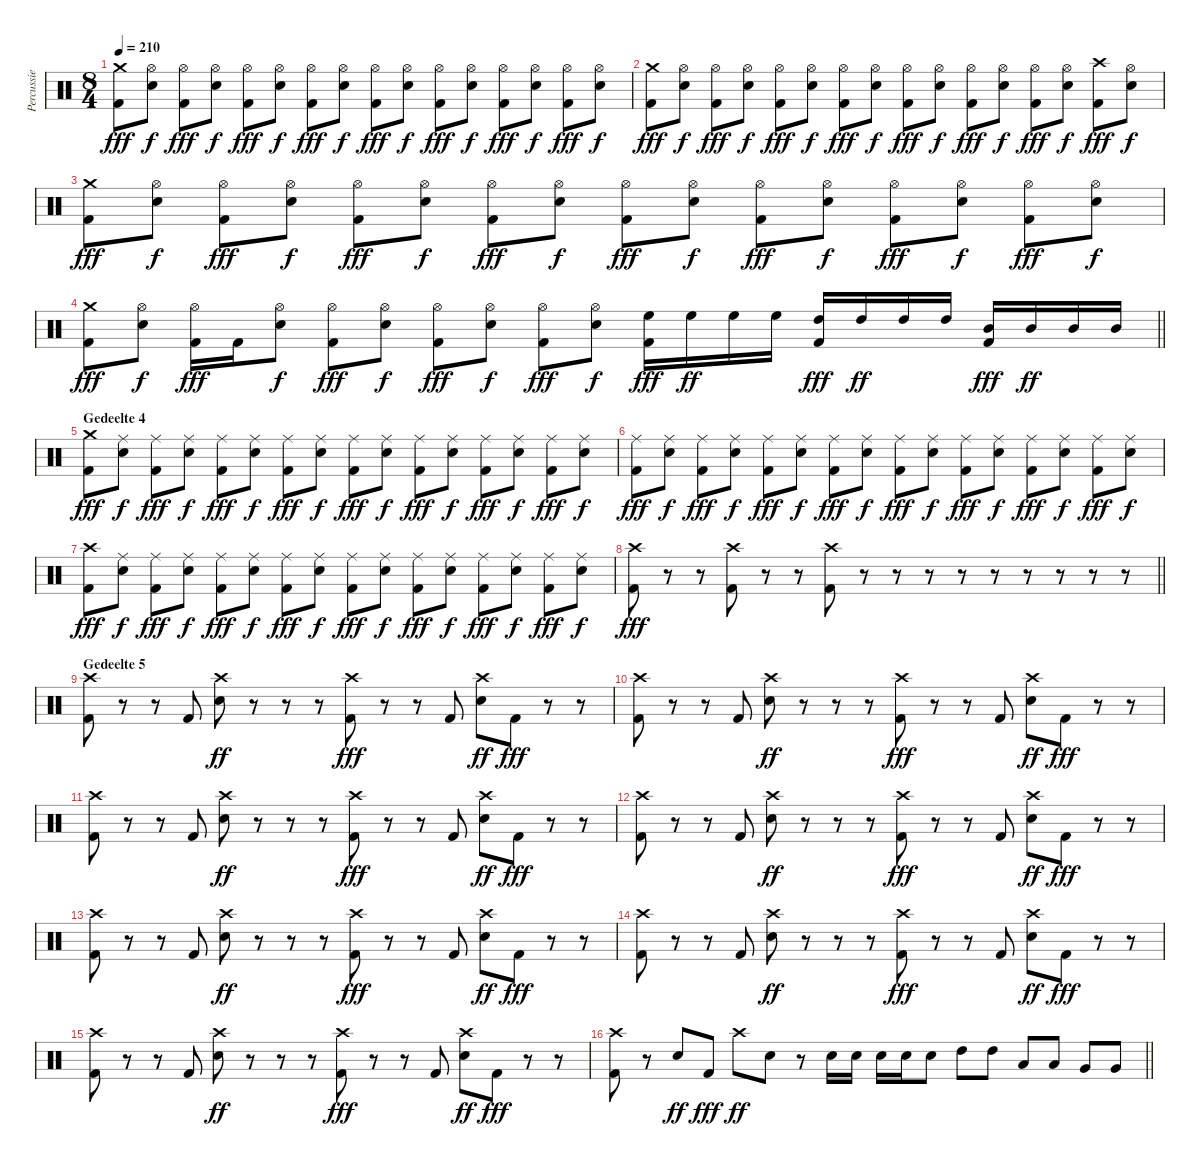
\track ("Percussie" "Percussie") {instrument percussion}
\staff {score}
\articulation defaults
\ts (8 4)
\tempo 210
\clef neutral
\ks c
("Crash medium (hit)" "Kick (hit) 2").8{dy fff} ("Hi-Hat (open)" "Snare (hit) 2").8{dy f} ("Hi-Hat (open)" "Kick (hit) 2").8{dy fff} ("Hi-Hat (open)" "Snare (hit) 2").8{dy f} ("Hi-Hat (open)" "Kick (hit) 2").8{dy fff} ("Hi-Hat (open)" "Snare (hit) 2").8{dy f} ("Hi-Hat (open)" "Kick (hit) 2").8{dy fff} ("Hi-Hat (open)" "Snare (hit) 2").8{dy f} ("Hi-Hat (open)" "Kick (hit) 2").8{dy fff} ("Hi-Hat (open)" "Snare (hit) 2").8{dy f} ("Hi-Hat (open)" "Kick (hit) 2").8{dy fff} ("Hi-Hat (open)" "Snare (hit) 2").8{dy f} ("Hi-Hat (open)" "Kick (hit) 2").8{dy fff} ("Hi-Hat (open)" "Snare (hit) 2").8{dy f} ("Hi-Hat (open)" "Kick (hit) 2").8{dy fff} ("Hi-Hat (open)" "Snare (hit) 2").8{dy f} |
("Crash medium (hit)" "Kick (hit) 2").8{dy fff} ("Hi-Hat (open)" "Snare (hit) 2").8{dy f} ("Hi-Hat (open)" "Kick (hit) 2").8{dy fff} ("Hi-Hat (open)" "Snare (hit) 2").8{dy f} ("Hi-Hat (open)" "Kick (hit) 2").8{dy fff} ("Hi-Hat (open)" "Snare (hit) 2").8{dy f} ("Hi-Hat (open)" "Kick (hit) 2").8{dy fff} ("Hi-Hat (open)" "Snare (hit) 2").8{dy f} ("Hi-Hat (open)" "Kick (hit) 2").8{dy fff} ("Hi-Hat (open)" "Snare (hit) 2").8{dy f} ("Hi-Hat (open)" "Kick (hit) 2").8{dy fff} ("Hi-Hat (open)" "Snare (hit) 2").8{dy f} ("Hi-Hat (open)" "Kick (hit) 2").8{dy fff} ("Hi-Hat (open)" "Snare (hit) 2").8{dy f} ("Crash high (hit)" "Kick (hit) 2").8{dy fff} ("Hi-Hat (open)" "Snare (hit) 2").8{dy f} |
("Crash medium (hit)" "Kick (hit) 2").8{dy fff} ("Hi-Hat (open)" "Snare (hit) 2").8{dy f} ("Hi-Hat (open)" "Kick (hit) 2").8{dy fff} ("Hi-Hat (open)" "Snare (hit) 2").8{dy f} ("Hi-Hat (open)" "Kick (hit) 2").8{dy fff} ("Hi-Hat (open)" "Snare (hit) 2").8{dy f} ("Hi-Hat (open)" "Kick (hit) 2").8{dy fff} ("Hi-Hat (open)" "Snare (hit) 2").8{dy f} ("Hi-Hat (open)" "Kick (hit) 2").8{dy fff} ("Hi-Hat (open)" "Snare (hit) 2").8{dy f} ("Hi-Hat (open)" "Kick (hit) 2").8{dy fff} ("Hi-Hat (open)" "Snare (hit) 2").8{dy f} ("Hi-Hat (open)" "Kick (hit) 2").8{dy fff} ("Hi-Hat (open)" "Snare (hit) 2").8{dy f} ("Hi-Hat (open)" "Kick (hit) 2").8{dy fff} ("Hi-Hat (open)" "Snare (hit) 2").8{dy f} |
\barLineRight lightlight
("Crash medium (hit)" "Kick (hit) 2").8{dy fff} ("Hi-Hat (open)" "Snare (hit) 2").8{dy f} ("Hi-Hat (open)" "Kick (hit) 2").16{dy fff} "Kick (hit) 2".16 ("Hi-Hat (open)" "Snare (hit) 2").8{dy f} ("Hi-Hat (open)" "Kick (hit) 2").8{dy fff} ("Hi-Hat (open)" "Snare (hit) 2").8{dy f} ("Hi-Hat (open)" "Kick (hit) 2").8{dy fff} ("Hi-Hat (open)" "Snare (hit) 2").8{dy f} ("Hi-Hat (open)" "Kick (hit) 2").8{dy fff} ("Hi-Hat (open)" "Snare (hit) 2").8{dy f} ("High Floor Tom (hit)" "Kick (hit) 2").16{dy fff} "High Floor Tom (hit)".16{dy ff} "High Floor Tom (hit)".16 "High Floor Tom (hit)".16 ("High Tom (hit)" "Kick (hit) 2").16{dy fff} "High Tom (hit)".16{dy ff} "High Tom (hit)".16 "High Tom (hit)".16 ("Mid Tom (hit)" "Kick (hit) 2").16{dy fff} "Mid Tom (hit)".16{dy ff} "Mid Tom (hit)".16 "Mid Tom (hit)".16 |
\section ("" "Gedeelte 4")
("Crash medium (hit)" "Kick (hit) 2").8{dy fff} ("Ride (middle)" "Snare (hit) 2").8{dy f} ("Ride (middle)" "Kick (hit) 2").8{dy fff} ("Ride (middle)" "Snare (hit) 2").8{dy f} ("Ride (middle)" "Kick (hit) 2").8{dy fff} ("Ride (middle)" "Snare (hit) 2").8{dy f} ("Ride (middle)" "Kick (hit) 2").8{dy fff} ("Ride (middle)" "Snare (hit) 2").8{dy f} ("Ride (middle)" "Kick (hit) 2").8{dy fff} ("Ride (middle)" "Snare (hit) 2").8{dy f} ("Ride (middle)" "Kick (hit) 2").8{dy fff} ("Ride (middle)" "Snare (hit) 2").8{dy f} ("Ride (middle)" "Kick (hit) 2").8{dy fff} ("Ride (middle)" "Snare (hit) 2").8{dy f} ("Ride (middle)" "Kick (hit) 2").8{dy fff} ("Ride (middle)" "Snare (hit) 2").8{dy f} |
("Ride (middle)" "Kick (hit) 2").8{dy fff} ("Ride (middle)" "Snare (hit) 2").8{dy f} ("Ride (middle)" "Kick (hit) 2").8{dy fff} ("Ride (middle)" "Snare (hit) 2").8{dy f} ("Ride (middle)" "Kick (hit) 2").8{dy fff} ("Ride (middle)" "Snare (hit) 2").8{dy f} ("Ride (middle)" "Kick (hit) 2").8{dy fff} ("Ride (middle)" "Snare (hit) 2").8{dy f} ("Ride (middle)" "Kick (hit) 2").8{dy fff} ("Ride (middle)" "Snare (hit) 2").8{dy f} ("Ride (middle)" "Kick (hit) 2").8{dy fff} ("Ride (middle)" "Snare (hit) 2").8{dy f} ("Ride (middle)" "Kick (hit) 2").8{dy fff} ("Ride (middle)" "Snare (hit) 2").8{dy f} ("Ride (middle)" "Kick (hit) 2").8{dy fff} ("Ride (middle)" "Snare (hit) 2").8{dy f} |
("Crash high (hit)" "Kick (hit) 2").8{dy fff} ("Ride (middle)" "Snare (hit) 2").8{dy f} ("Ride (middle)" "Kick (hit) 2").8{dy fff} ("Ride (middle)" "Snare (hit) 2").8{dy f} ("Ride (middle)" "Kick (hit) 2").8{dy fff} ("Ride (middle)" "Snare (hit) 2").8{dy f} ("Ride (middle)" "Kick (hit) 2").8{dy fff} ("Ride (middle)" "Snare (hit) 2").8{dy f} ("Ride (middle)" "Kick (hit) 2").8{dy fff} ("Ride (middle)" "Snare (hit) 2").8{dy f} ("Ride (middle)" "Kick (hit) 2").8{dy fff} ("Ride (middle)" "Snare (hit) 2").8{dy f} ("Ride (middle)" "Kick (hit) 2").8{dy fff} ("Ride (middle)" "Snare (hit) 2").8{dy f} ("Ride (middle)" "Kick (hit) 2").8{dy fff} ("Ride (middle)" "Snare (hit) 2").8{dy f} |
\barLineRight lightlight
("Crash high (hit)" "Kick (hit) 2").8{dy fff} r.8 r.8 ("Crash high (hit)" "Kick (hit) 2").8 r.8 r.8 ("Crash high (hit)" "Kick (hit) 2").8 r.8 r.8 r.8 r.8 r.8 r.8 r.8 r.8 r.8 |
\section ("" "Gedeelte 5")
("Crash high (hit)" "Kick (hit) 2").8 r.8 r.8 "Kick (hit) 2".8 ("Crash high (hit)" "Snare (hit) 2").8{dy ff} r.8 r.8 r.8 ("Crash high (hit)" "Kick (hit) 2").8{dy fff} r.8 r.8 "Kick (hit) 2".8 ("Crash high (hit)" "Snare (hit) 2").8{dy ff} "Kick (hit) 2".8{dy fff} r.8 r.8 |
("Crash high (hit)" "Kick (hit) 2").8 r.8 r.8 "Kick (hit) 2".8 ("Crash high (hit)" "Snare (hit) 2").8{dy ff} r.8 r.8 r.8 ("Crash high (hit)" "Kick (hit) 2").8{dy fff} r.8 r.8 "Kick (hit) 2".8 ("Crash high (hit)" "Snare (hit) 2").8{dy ff} "Kick (hit) 2".8{dy fff} r.8 r.8 |
("Crash high (hit)" "Kick (hit) 2").8 r.8 r.8 "Kick (hit) 2".8 ("Crash high (hit)" "Snare (hit) 2").8{dy ff} r.8 r.8 r.8 ("Crash high (hit)" "Kick (hit) 2").8{dy fff} r.8 r.8 "Kick (hit) 2".8 ("Crash high (hit)" "Snare (hit) 2").8{dy ff} "Kick (hit) 2".8{dy fff} r.8 r.8 |
("Crash high (hit)" "Kick (hit) 2").8 r.8 r.8 "Kick (hit) 2".8 ("Crash high (hit)" "Snare (hit) 2").8{dy ff} r.8 r.8 r.8 ("Crash high (hit)" "Kick (hit) 2").8{dy fff} r.8 r.8 "Kick (hit) 2".8 ("Crash high (hit)" "Snare (hit) 2").8{dy ff} "Kick (hit) 2".8{dy fff} r.8 r.8 |
("Crash high (hit)" "Kick (hit) 2").8 r.8 r.8 "Kick (hit) 2".8 ("Crash high (hit)" "Snare (hit) 2").8{dy ff} r.8 r.8 r.8 ("Crash high (hit)" "Kick (hit) 2").8{dy fff} r.8 r.8 "Kick (hit) 2".8 ("Crash high (hit)" "Snare (hit) 2").8{dy ff} "Kick (hit) 2".8{dy fff} r.8 r.8 |
("Crash high (hit)" "Kick (hit) 2").8 r.8 r.8 "Kick (hit) 2".8 ("Crash high (hit)" "Snare (hit) 2").8{dy ff} r.8 r.8 r.8 ("Crash high (hit)" "Kick (hit) 2").8{dy fff} r.8 r.8 "Kick (hit) 2".8 ("Crash high (hit)" "Snare (hit) 2").8{dy ff} "Kick (hit) 2".8{dy fff} r.8 r.8 |
("Crash high (hit)" "Kick (hit) 2").8 r.8 r.8 "Kick (hit) 2".8 ("Crash high (hit)" "Snare (hit) 2").8{dy ff} r.8 r.8 r.8 ("Crash high (hit)" "Kick (hit) 2").8{dy fff} r.8 r.8 "Kick (hit) 2".8 ("Crash high (hit)" "Snare (hit) 2").8{dy ff} "Kick (hit) 2".8{dy fff} r.8 r.8 |
\barLineRight lightlight
("Crash high (hit)" "Kick (hit) 2").8 r.8 "Snare (hit) 2".8{dy ff} "Kick (hit) 2".8{dy fff} "Crash high (hit)".8{dy ff} "Snare (hit) 2".8 r.8 "Snare (hit) 2".16 "Snare (hit) 2".16 "Snare (hit) 2".16 "Snare (hit) 2".16 "Snare (hit) 2".8 "High Tom (hit)".8 "High Tom (hit)".8 "Low Tom (hit)".8 "Low Tom (hit)".8 "Very Low Tom (hit)".8 "Very Low Tom (hit)".8
